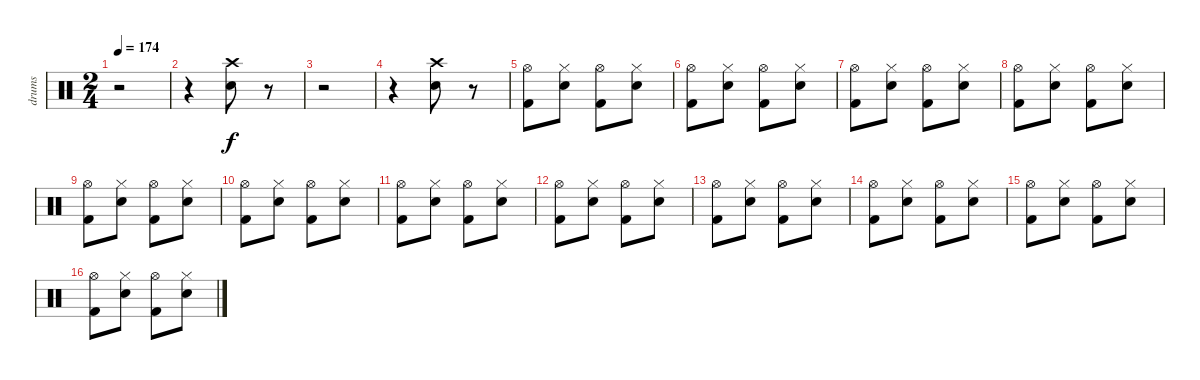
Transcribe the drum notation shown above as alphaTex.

\track ("drums" "drums") {instrument percussion}
\staff {score}
\articulation defaults
\ts (2 4)
\tempo 174
\clef neutral
\ks c
r.2{dy f} |
r.4 ("Snare (hit) 2" "Crash high (hit)").8 r.8 |
r.2 |
r.4 ("Crash high (hit)" "Snare (hit) 2").8 r.8 |
("Hi-Hat (open)" "Kick (hit) 2").8 ("Snare (hit) 2" "Hi-Hat (closed)").8 ("Kick (hit) 2" "Hi-Hat (open)").8 ("Snare (hit) 2" "Hi-Hat (closed)").8 |
("Kick (hit) 2" "Hi-Hat (open)").8 ("Snare (hit) 2" "Hi-Hat (closed)").8 ("Kick (hit) 2" "Hi-Hat (open)").8 ("Snare (hit) 2" "Hi-Hat (closed)").8 |
("Kick (hit) 2" "Hi-Hat (open)").8 ("Snare (hit) 2" "Hi-Hat (closed)").8 ("Kick (hit) 2" "Hi-Hat (open)").8 ("Snare (hit) 2" "Hi-Hat (closed)").8 |
("Kick (hit) 2" "Hi-Hat (open)").8 ("Snare (hit) 2" "Hi-Hat (closed)").8 ("Kick (hit) 2" "Hi-Hat (open)").8 ("Snare (hit) 2" "Hi-Hat (closed)").8 |
("Hi-Hat (open)" "Kick (hit) 2").8 ("Snare (hit) 2" "Hi-Hat (closed)").8 ("Kick (hit) 2" "Hi-Hat (open)").8 ("Snare (hit) 2" "Hi-Hat (closed)").8 |
("Kick (hit) 2" "Hi-Hat (open)").8 ("Snare (hit) 2" "Hi-Hat (closed)").8 ("Kick (hit) 2" "Hi-Hat (open)").8 ("Snare (hit) 2" "Hi-Hat (closed)").8 |
("Kick (hit) 2" "Hi-Hat (open)").8 ("Snare (hit) 2" "Hi-Hat (closed)").8 ("Kick (hit) 2" "Hi-Hat (open)").8 ("Snare (hit) 2" "Hi-Hat (closed)").8 |
("Kick (hit) 2" "Hi-Hat (open)").8 ("Snare (hit) 2" "Hi-Hat (closed)").8 ("Kick (hit) 2" "Hi-Hat (open)").8 ("Snare (hit) 2" "Hi-Hat (closed)").8 |
("Hi-Hat (open)" "Kick (hit) 2").8 ("Snare (hit) 2" "Hi-Hat (closed)").8 ("Kick (hit) 2" "Hi-Hat (open)").8 ("Snare (hit) 2" "Hi-Hat (closed)").8 |
("Kick (hit) 2" "Hi-Hat (open)").8 ("Snare (hit) 2" "Hi-Hat (closed)").8 ("Kick (hit) 2" "Hi-Hat (open)").8 ("Snare (hit) 2" "Hi-Hat (closed)").8 |
("Kick (hit) 2" "Hi-Hat (open)").8 ("Snare (hit) 2" "Hi-Hat (closed)").8 ("Kick (hit) 2" "Hi-Hat (open)").8 ("Snare (hit) 2" "Hi-Hat (closed)").8 |
("Kick (hit) 2" "Hi-Hat (open)").8 ("Snare (hit) 2" "Hi-Hat (closed)").8 ("Kick (hit) 2" "Hi-Hat (open)").8 ("Snare (hit) 2" "Hi-Hat (closed)").8
